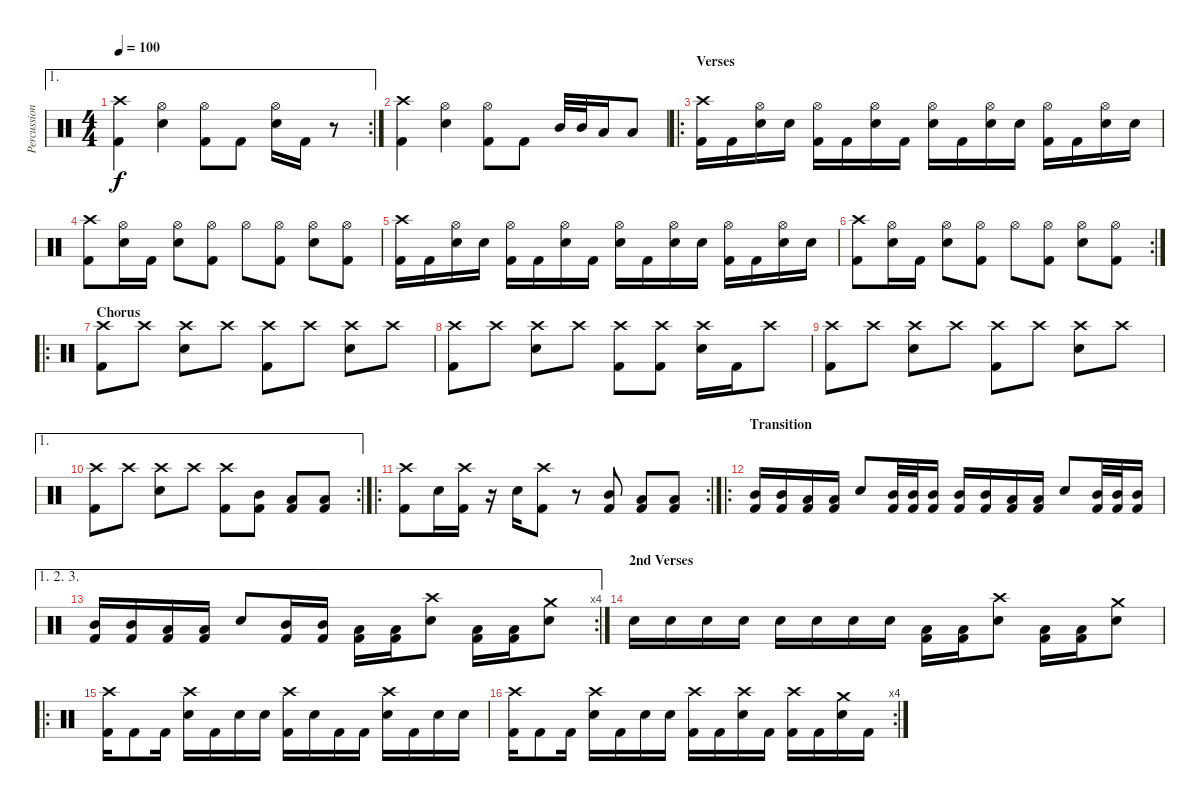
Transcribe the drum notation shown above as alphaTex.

\track ("Percussions" "Percussion") {instrument percussion}
\staff {score}
\articulation defaults
\ae 1
\rc 2
\ts (4 4)
\tempo 100
\clef neutral
\ks c
("Crash high (hit)" "Kick (hit) 2").4{dy f} ("Hi-Hat (open)" "Snare (hit) 2").4 ("Hi-Hat (open)" "Kick (hit) 2").8 "Kick (hit) 2".8 ("Hi-Hat (open)" "Snare (hit) 2").16 "Kick (hit) 2".16 r.8 |
("Crash high (hit)" "Kick (hit) 2").4 ("Hi-Hat (open)" "Snare (hit) 2").4 ("Hi-Hat (open)" "Kick (hit) 2").8 "Kick (hit) 2".8 "Mid Tom (hit)".32 "Mid Tom (hit)".32 "Low Tom (hit)".16 "Low Tom (hit)".8 |
\ro
\section ("" "Verses")
("Crash high (hit)" "Kick (hit) 2").16 "Kick (hit) 2".16 ("Hi-Hat (open)" "Snare (hit) 2").16 "Snare (hit)".16 ("Hi-Hat (open)" "Kick (hit) 2").16 "Kick (hit) 2".16 ("Hi-Hat (open)" "Snare (hit) 2").16 "Kick (hit) 2".16 ("Hi-Hat (open)" "Snare (hit)").16 "Kick (hit) 2".16 ("Hi-Hat (open)" "Snare (hit) 2").16 "Snare (hit)".16 ("Hi-Hat (open)" "Kick (hit) 2").16 "Kick (hit) 2".16 ("Hi-Hat (open)" "Snare (hit) 2").16 "Snare (hit)".16 |
("Crash high (hit)" "Kick (hit) 2").8 ("Hi-Hat (open)" "Snare (hit)").16 "Kick (hit) 2".16 ("Hi-Hat (open)" "Snare (hit) 2").8 ("Hi-Hat (open)" "Kick (hit) 2").8 "Hi-Hat (open)".8 ("Hi-Hat (open)" "Kick (hit) 2").8 ("Hi-Hat (open)" "Snare (hit) 2").8 ("Hi-Hat (open)" "Kick (hit) 2").8 |
("Crash high (hit)" "Kick (hit) 2").16 "Kick (hit) 2".16 ("Hi-Hat (open)" "Snare (hit) 2").16 "Snare (hit)".16 ("Hi-Hat (open)" "Kick (hit) 2").16 "Kick (hit) 2".16 ("Hi-Hat (open)" "Snare (hit) 2").16 "Kick (hit) 2".16 ("Hi-Hat (open)" "Snare (hit)").16 "Kick (hit) 2".16 ("Hi-Hat (open)" "Snare (hit) 2").16 "Snare (hit)".16 ("Hi-Hat (open)" "Kick (hit) 2").16 "Kick (hit) 2".16 ("Hi-Hat (open)" "Snare (hit) 2").16 "Snare (hit)".16 |
\rc 2
("Crash high (hit)" "Kick (hit) 2").8 ("Hi-Hat (open)" "Snare (hit)").16 "Kick (hit) 2".16 ("Hi-Hat (open)" "Snare (hit) 2").8 ("Hi-Hat (open)" "Kick (hit) 2").8 "Hi-Hat (open)".8 ("Hi-Hat (open)" "Kick (hit) 2").8 ("Hi-Hat (open)" "Snare (hit) 2").8 ("Hi-Hat (open)" "Kick (hit) 2").8 |
\ro
\section ("" "Chorus")
("Crash high (hit)" "Kick (hit) 2").8 "Crash high (hit)".8 ("Crash high (hit)" "Snare (hit) 2").8 "Crash high (hit)".8 ("Crash high (hit)" "Kick (hit) 2").8 "Crash high (hit)".8 ("Crash high (hit)" "Snare (hit) 2").8 "Crash high (hit)".8 |
("Crash high (hit)" "Kick (hit) 2").8 "Crash high (hit)".8 ("Crash high (hit)" "Snare (hit) 2").8 "Crash high (hit)".8 ("Crash high (hit)" "Kick (hit) 2").8 ("Crash high (hit)" "Kick (hit) 2").8 ("Crash high (hit)" "Snare (hit) 2").16 "Kick (hit) 2".16 "Crash high (hit)".8 |
("Crash high (hit)" "Kick (hit) 2").8 "Crash high (hit)".8 ("Crash high (hit)" "Snare (hit) 2").8 "Crash high (hit)".8 ("Crash high (hit)" "Kick (hit) 2").8 "Crash high (hit)".8 ("Crash high (hit)" "Snare (hit) 2").8 "Crash high (hit)".8 |
\ae 1
\rc 2
("Crash high (hit)" "Kick (hit) 2").8 "Crash high (hit)".8 ("Crash high (hit)" "Snare (hit) 2").8 "Crash high (hit)".8 ("Crash high (hit)" "Kick (hit) 2").8 ("Mid Tom (hit)" "Kick (hit) 2").8 ("Low Tom (hit)" "Kick (hit) 2").8 ("Low Tom (hit)" "Kick (hit) 2").8 |
\ro
\rc 2
("Crash high (hit)" "Kick (hit) 2").8 "Snare (hit) 2".16 ("Crash high (hit)" "Kick (hit) 2").16 r.16 "Snare (hit) 2".16 ("Crash high (hit)" "Kick (hit) 2").8 r.8 ("Mid Tom (hit)" "Kick (hit) 2").8 ("Low Tom (hit)" "Kick (hit) 2").8 ("Low Tom (hit)" "Kick (hit) 2").8 |
\ro
\section ("" "Transition")
("Kick (hit) 2" "Mid Tom (hit)").16 ("Kick (hit) 2" "Mid Tom (hit)").16 ("Kick (hit) 2" "Low Tom (hit)").16 ("Kick (hit) 2" "Low Tom (hit)").16 "Snare (hit) 2".8 ("Kick (hit) 2" "Mid Tom (hit)").32 ("Kick (hit) 2" "Mid Tom (hit)").32 ("Kick (hit) 2" "Mid Tom (hit)").16 ("Kick (hit) 2" "Mid Tom (hit)").16 ("Kick (hit) 2" "Mid Tom (hit)").16 ("Kick (hit) 2" "Low Tom (hit)").16 ("Kick (hit) 2" "Low Tom (hit)").16 "Snare (hit) 2".8 ("Kick (hit) 2" "Mid Tom (hit)").32 ("Kick (hit) 2" "Mid Tom (hit)").32 ("Kick (hit) 2" "Mid Tom (hit)").16 |
\ae (1 2 3)
\rc 4
("Kick (hit) 2" "Mid Tom (hit)").16 ("Kick (hit) 2" "Mid Tom (hit)").16 ("Kick (hit) 2" "Low Tom (hit)").16 ("Kick (hit) 2" "Low Tom (hit)").16 "Snare (hit) 2".8 ("Kick (hit) 2" "Mid Tom (hit)").16 ("Kick (hit) 2" "Mid Tom (hit)").16 ("Kick (hit) 2" "Low Tom (hit)").16 ("Kick (hit) 2" "Low Tom (hit)").16 ("Crash high (hit)" "Snare (hit) 2").8 ("Kick (hit) 2" "Low Tom (hit)").16 ("Kick (hit) 2" "Low Tom (hit)").16 ("Crash medium (hit)" "Snare (hit) 2").8 |
\section ("" "2nd Verses")
"Snare (hit) 2".16 "Snare (hit) 2".16 "Snare (hit) 2".16 "Snare (hit) 2".16 "Snare (hit) 2".16 "Snare (hit) 2".16 "Snare (hit) 2".16 "Snare (hit) 2".16 ("Kick (hit) 2" "Low Tom (hit)").16 ("Kick (hit) 2" "Low Tom (hit)").16 ("Snare (hit) 2" "Crash high (hit)").8 ("Kick (hit) 2" "Low Tom (hit)").16 ("Kick (hit) 2" "Low Tom (hit)").16 ("Snare (hit) 2" "Crash medium (hit)").8 |
\ro
("Crash high (hit)" "Kick (hit) 2").16 "Kick (hit) 2".8 "Kick (hit) 2".16 ("Crash high (hit)" "Snare (hit) 2").16 "Kick (hit) 2".16 "Snare (hit) 2".16 "Snare (hit) 2".16 ("Crash high (hit)" "Kick (hit) 2").16 "Snare (hit) 2".16 "Kick (hit) 2".16 "Kick (hit) 2".16 ("Crash high (hit)" "Snare (hit) 2").16 "Kick (hit) 2".16 "Snare (hit) 2".16 "Snare (hit) 2".16 |
\rc 4
("Crash high (hit)" "Kick (hit) 2").16 "Kick (hit) 2".8 "Kick (hit) 2".16 ("Crash high (hit)" "Snare (hit) 2").16 "Kick (hit) 2".16 "Snare (hit) 2".16 "Snare (hit) 2".16 ("Crash high (hit)" "Kick (hit) 2").16 "Kick (hit) 2".16 ("Crash high (hit)" "Snare (hit) 2").16 "Kick (hit) 2".16 ("Crash high (hit)" "Kick (hit) 2").16 "Kick (hit) 2".16 ("Crash medium (hit)" "Snare (hit) 2").16 "Kick (hit) 2".16
